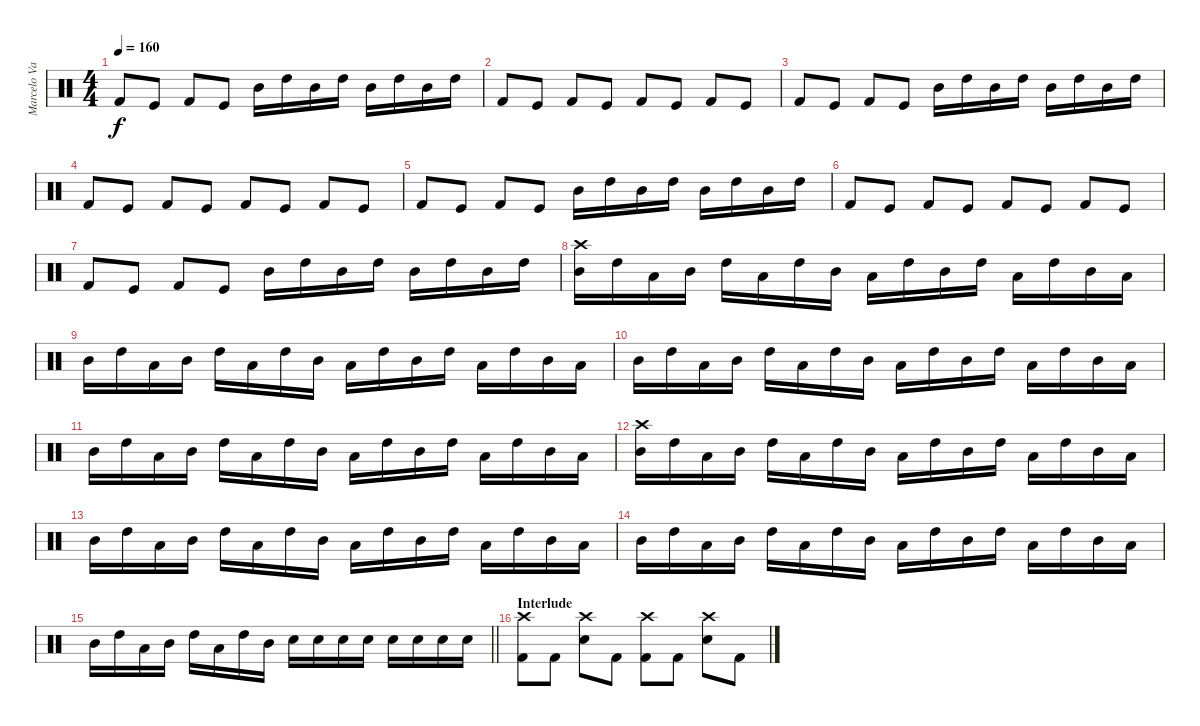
\track ("Marcelo Valenzuela (Bateria)" "Marcelo Va") {instrument percussion}
\staff {score}
\articulation defaults
\ts (4 4)
\tempo 160
\clef neutral
\ks c "Kick (hit) 2".8{dy f} "Kick (hit)".8 "Kick (hit) 2".8 "Kick (hit)".8 "Mid Tom (hit)".16 "High Tom (hit)".16 "Mid Tom (hit)".16 "High Tom (hit)".16 "Mid Tom (hit)".16 "High Tom (hit)".16 "Mid Tom (hit)".16 "High Tom (hit)".16
|
"Kick (hit) 2".8 "Kick (hit)".8 "Kick (hit) 2".8 "Kick (hit)".8 "Kick (hit) 2".8 "Kick (hit)".8 "Kick (hit) 2".8 "Kick (hit)".8 |
"Kick (hit) 2".8 "Kick (hit)".8 "Kick (hit) 2".8 "Kick (hit)".8 "Mid Tom (hit)".16 "High Tom (hit)".16 "Mid Tom (hit)".16 "High Tom (hit)".16 "Mid Tom (hit)".16 "High Tom (hit)".16 "Mid Tom (hit)".16 "High Tom (hit)".16 |
"Kick (hit) 2".8 "Kick (hit)".8 "Kick (hit) 2".8 "Kick (hit)".8 "Kick (hit) 2".8 "Kick (hit)".8 "Kick (hit) 2".8 "Kick (hit)".8 |
"Kick (hit) 2".8 "Kick (hit)".8 "Kick (hit) 2".8 "Kick (hit)".8 "Mid Tom (hit)".16 "High Tom (hit)".16 "Mid Tom (hit)".16 "High Tom (hit)".16 "Mid Tom (hit)".16 "High Tom (hit)".16 "Mid Tom (hit)".16 "High Tom (hit)".16 |
"Kick (hit) 2".8 "Kick (hit)".8 "Kick (hit) 2".8 "Kick (hit)".8 "Kick (hit) 2".8 "Kick (hit)".8 "Kick (hit) 2".8 "Kick (hit)".8 |
"Kick (hit) 2".8 "Kick (hit)".8 "Kick (hit) 2".8 "Kick (hit)".8 "Mid Tom (hit)".16 "High Tom (hit)".16 "Mid Tom (hit)".16 "High Tom (hit)".16 "Mid Tom (hit)".16 "High Tom (hit)".16 "Mid Tom (hit)".16 "High Tom (hit)".16 |
("Crash high (hit)" "Mid Tom (hit)").16 "High Tom (hit)".16 "Low Floor Tom (hit)".16 "Mid Tom (hit)".16 "High Tom (hit)".16 "Low Floor Tom (hit)".16 "High Tom (hit)".16 "Mid Tom (hit)".16 "Low Floor Tom (hit)".16 "High Tom (hit)".16 "Mid Tom (hit)".16 "High Tom (hit)".16 "Low Floor Tom (hit)".16 "High Tom (hit)".16 "Mid Tom (hit)".16 "Low Floor Tom (hit)".16 |
"Mid Tom (hit)".16 "High Tom (hit)".16 "Low Floor Tom (hit)".16 "Mid Tom (hit)".16 "High Tom (hit)".16 "Low Floor Tom (hit)".16 "High Tom (hit)".16 "Mid Tom (hit)".16 "Low Floor Tom (hit)".16 "High Tom (hit)".16 "Mid Tom (hit)".16 "High Tom (hit)".16 "Low Floor Tom (hit)".16 "High Tom (hit)".16 "Mid Tom (hit)".16 "Low Floor Tom (hit)".16 |
"Mid Tom (hit)".16 "High Tom (hit)".16 "Low Floor Tom (hit)".16 "Mid Tom (hit)".16 "High Tom (hit)".16 "Low Floor Tom (hit)".16 "High Tom (hit)".16 "Mid Tom (hit)".16 "Low Floor Tom (hit)".16 "High Tom (hit)".16 "Mid Tom (hit)".16 "High Tom (hit)".16 "Low Floor Tom (hit)".16 "High Tom (hit)".16 "Mid Tom (hit)".16 "Low Floor Tom (hit)".16 |
"Mid Tom (hit)".16 "High Tom (hit)".16 "Low Floor Tom (hit)".16 "Mid Tom (hit)".16 "High Tom (hit)".16 "Low Floor Tom (hit)".16 "High Tom (hit)".16 "Mid Tom (hit)".16 "Low Floor Tom (hit)".16 "High Tom (hit)".16 "Mid Tom (hit)".16 "High Tom (hit)".16 "Low Floor Tom (hit)".16 "High Tom (hit)".16 "Mid Tom (hit)".16 "Low Floor Tom (hit)".16 |
("Crash high (hit)" "Mid Tom (hit)").16 "High Tom (hit)".16 "Low Floor Tom (hit)".16 "Mid Tom (hit)".16 "High Tom (hit)".16 "Low Floor Tom (hit)".16 "High Tom (hit)".16 "Mid Tom (hit)".16 "Low Floor Tom (hit)".16 "High Tom (hit)".16 "Mid Tom (hit)".16 "High Tom (hit)".16 "Low Floor Tom (hit)".16 "High Tom (hit)".16 "Mid Tom (hit)".16 "Low Floor Tom (hit)".16 |
"Mid Tom (hit)".16 "High Tom (hit)".16 "Low Floor Tom (hit)".16 "Mid Tom (hit)".16 "High Tom (hit)".16 "Low Floor Tom (hit)".16 "High Tom (hit)".16 "Mid Tom (hit)".16 "Low Floor Tom (hit)".16 "High Tom (hit)".16 "Mid Tom (hit)".16 "High Tom (hit)".16 "Low Floor Tom (hit)".16 "High Tom (hit)".16 "Mid Tom (hit)".16 "Low Floor Tom (hit)".16 |
"Mid Tom (hit)".16 "High Tom (hit)".16 "Low Floor Tom (hit)".16 "Mid Tom (hit)".16 "High Tom (hit)".16 "Low Floor Tom (hit)".16 "High Tom (hit)".16 "Mid Tom (hit)".16 "Low Floor Tom (hit)".16 "High Tom (hit)".16 "Mid Tom (hit)".16 "High Tom (hit)".16 "Low Floor Tom (hit)".16 "High Tom (hit)".16 "Mid Tom (hit)".16 "Low Floor Tom (hit)".16 |
\barLineRight lightlight "Mid Tom (hit)".16 "High Tom (hit)".16 "Low Floor Tom (hit)".16 "Mid Tom (hit)".16 "High Tom (hit)".16 "Low Floor Tom (hit)".16 "High Tom (hit)".16 "Mid Tom (hit)".16 "Electric Snare (hit)".16 "Electric Snare (hit)".16 "Electric Snare (hit)".16 "Electric Snare (hit)".16 "Electric Snare (hit)".16 "Electric Snare (hit)".16 "Electric Snare (hit)".16 "Electric Snare (hit)".16
|
\section ("" "Interlude")
("Crash high (hit)" "Kick (hit) 2").8 "Kick (hit) 2".8 ("Crash high (hit)" "Electric Snare (hit)").8 "Kick (hit) 2".8 ("Crash high (hit)" "Kick (hit) 2").8 "Kick (hit) 2".8 ("Crash high (hit)" "Electric Snare (hit)").8 "Kick (hit) 2".8
